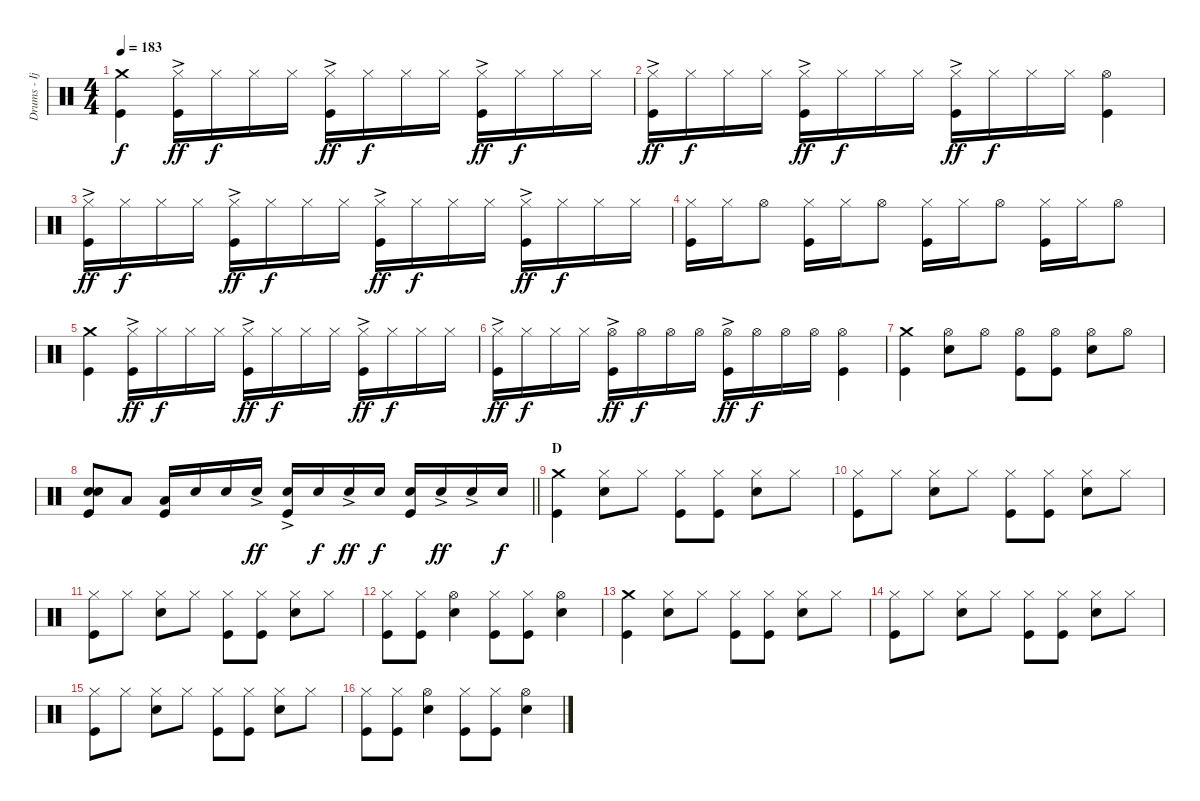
\track ("Drums - Ijichi" "Drums - Ij") {instrument percussion}
\staff {score}
\articulation defaults
\ts (4 4)
\tempo 183
\clef neutral
\ks c
("Crash medium (hit)" "Kick (hit)").4{dy f} ("Hi-Hat (closed)"{ac} "Kick (hit)").16{dy ff} "Hi-Hat (closed)".16{dy f} "Hi-Hat (closed)".16 "Hi-Hat (closed)".16 ("Hi-Hat (closed)"{ac} "Kick (hit)").16{dy ff} "Hi-Hat (closed)".16{dy f} "Hi-Hat (closed)".16 "Hi-Hat (closed)".16 ("Hi-Hat (closed)"{ac} "Kick (hit)").16{dy ff} "Hi-Hat (closed)".16{dy f} "Hi-Hat (closed)".16 "Hi-Hat (closed)".16 |
("Hi-Hat (closed)"{ac} "Kick (hit)").16{dy ff} "Hi-Hat (closed)".16{dy f} "Hi-Hat (closed)".16 "Hi-Hat (closed)".16 ("Hi-Hat (closed)"{ac} "Kick (hit)").16{dy ff} "Hi-Hat (closed)".16{dy f} "Hi-Hat (closed)".16 "Hi-Hat (closed)".16 ("Hi-Hat (closed)"{ac} "Kick (hit)").16{dy ff} "Hi-Hat (closed)".16{dy f} "Hi-Hat (closed)".16 "Hi-Hat (closed)".16 ("Hi-Hat (open)" "Kick (hit)").4 |
("Hi-Hat (closed)"{ac} "Kick (hit)").16{dy ff} "Hi-Hat (closed)".16{dy f} "Hi-Hat (closed)".16 "Hi-Hat (closed)".16 ("Hi-Hat (closed)"{ac} "Kick (hit)").16{dy ff} "Hi-Hat (closed)".16{dy f} "Hi-Hat (closed)".16 "Hi-Hat (closed)".16 ("Hi-Hat (closed)"{ac} "Kick (hit)").16{dy ff} "Hi-Hat (closed)".16{dy f} "Hi-Hat (closed)".16 "Hi-Hat (closed)".16 ("Hi-Hat (closed)"{ac} "Kick (hit)").16{dy ff} "Hi-Hat (closed)".16{dy f} "Hi-Hat (closed)".16 "Hi-Hat (closed)".16 |
("Hi-Hat (closed)" "Kick (hit)").16 "Hi-Hat (closed)".16 "Hi-Hat (open)".8 ("Hi-Hat (closed)" "Kick (hit)").16 "Hi-Hat (closed)".16 "Hi-Hat (open)".8 ("Hi-Hat (closed)" "Kick (hit)").16 "Hi-Hat (closed)".16 "Hi-Hat (open)".8 ("Hi-Hat (closed)" "Kick (hit)").16 "Hi-Hat (closed)".16 "Hi-Hat (open)".8 |
("Crash medium (hit)" "Kick (hit)").4 ("Hi-Hat (closed)"{ac} "Kick (hit)").16{dy ff} "Hi-Hat (closed)".16{dy f} "Hi-Hat (closed)".16 "Hi-Hat (closed)".16 ("Hi-Hat (closed)"{ac} "Kick (hit)").16{dy ff} "Hi-Hat (closed)".16{dy f} "Hi-Hat (closed)".16 "Hi-Hat (closed)".16 ("Hi-Hat (closed)"{ac} "Kick (hit)").16{dy ff} "Hi-Hat (closed)".16{dy f} "Hi-Hat (closed)".16 "Hi-Hat (closed)".16 |
("Hi-Hat (closed)"{ac} "Kick (hit)").16{dy ff} "Hi-Hat (closed)".16{dy f} "Hi-Hat (closed)".16 "Hi-Hat (closed)".16 ("Hi-Hat (open)"{ac} "Kick (hit)").16{dy ff} "Hi-Hat (open)".16{dy f} "Hi-Hat (open)".16 "Hi-Hat (open)".16 ("Hi-Hat (open)"{ac} "Kick (hit)").16{dy ff} "Hi-Hat (open)".16{dy f} "Hi-Hat (open)".16 "Hi-Hat (open)".16 ("Hi-Hat (open)" "Kick (hit)").4 |
("Crash medium (hit)" "Kick (hit)").4 ("Hi-Hat (open)" "Electric Snare (hit)").8 "Hi-Hat (open)".8 ("Hi-Hat (open)" "Kick (hit)").8 ("Hi-Hat (open)" "Kick (hit)").8 ("Hi-Hat (open)" "Electric Snare (hit)").8 "Hi-Hat (open)".8 |
\barLineRight lightlight
("Electric Snare (hit)" "Electric Snare (hit)" "Kick (hit)").8 "Low Tom (hit)".8 ("Low Tom (hit)" "Kick (hit)").16 "Electric Snare (hit)".16 "Electric Snare (hit)".16 "Electric Snare (hit)"{ac}.16{dy ff} ("Electric Snare (hit)"{ac} "Kick (hit)").16 "Electric Snare (hit)".16{dy f} "Electric Snare (hit)"{ac}.16{dy ff} "Electric Snare (hit)".16{dy f} ("Electric Snare (hit)" "Kick (hit)").16 "Electric Snare (hit)"{ac}.16{dy ff} "Electric Snare (hit)"{ac}.16 "Electric Snare (hit)".16{dy f} |
\section ("" "D")
("Crash medium (hit)" "Kick (hit)").4 ("Hi-Hat (closed)" "Electric Snare (hit)").8 "Hi-Hat (closed)".8 ("Hi-Hat (closed)" "Kick (hit)").8 ("Hi-Hat (closed)" "Kick (hit)").8 ("Hi-Hat (closed)" "Electric Snare (hit)").8 "Hi-Hat (closed)".8 |
("Hi-Hat (closed)" "Kick (hit)").8 "Hi-Hat (closed)".8 ("Hi-Hat (closed)" "Electric Snare (hit)").8 "Hi-Hat (closed)".8 ("Hi-Hat (closed)" "Kick (hit)").8 ("Hi-Hat (closed)" "Kick (hit)").8 ("Hi-Hat (closed)" "Electric Snare (hit)").8 "Hi-Hat (closed)".8 |
("Hi-Hat (closed)" "Kick (hit)").8 "Hi-Hat (closed)".8 ("Hi-Hat (closed)" "Electric Snare (hit)").8 "Hi-Hat (closed)".8 ("Hi-Hat (closed)" "Kick (hit)").8 ("Hi-Hat (closed)" "Kick (hit)").8 ("Hi-Hat (closed)" "Electric Snare (hit)").8 "Hi-Hat (closed)".8 |
("Hi-Hat (closed)" "Kick (hit)").8 ("Hi-Hat (closed)" "Kick (hit)").8 ("Hi-Hat (open)" "Electric Snare (hit)").4 ("Hi-Hat (closed)" "Kick (hit)").8 ("Hi-Hat (closed)" "Kick (hit)").8 ("Hi-Hat (open)" "Electric Snare (hit)").4 |
("Crash medium (hit)" "Kick (hit)").4 ("Hi-Hat (closed)" "Electric Snare (hit)").8 "Hi-Hat (closed)".8 ("Hi-Hat (closed)" "Kick (hit)").8 ("Hi-Hat (closed)" "Kick (hit)").8 ("Hi-Hat (closed)" "Electric Snare (hit)").8 "Hi-Hat (closed)".8 |
("Hi-Hat (closed)" "Kick (hit)").8 "Hi-Hat (closed)".8 ("Hi-Hat (closed)" "Electric Snare (hit)").8 "Hi-Hat (closed)".8 ("Hi-Hat (closed)" "Kick (hit)").8 ("Hi-Hat (closed)" "Kick (hit)").8 ("Hi-Hat (closed)" "Electric Snare (hit)").8 "Hi-Hat (closed)".8 |
("Hi-Hat (closed)" "Kick (hit)").8 "Hi-Hat (closed)".8 ("Hi-Hat (closed)" "Electric Snare (hit)").8 "Hi-Hat (closed)".8 ("Hi-Hat (closed)" "Kick (hit)").8 ("Hi-Hat (closed)" "Kick (hit)").8 ("Hi-Hat (closed)" "Electric Snare (hit)").8 "Hi-Hat (closed)".8 |
("Hi-Hat (closed)" "Kick (hit)").8 ("Hi-Hat (closed)" "Kick (hit)").8 ("Hi-Hat (open)" "Electric Snare (hit)").4 ("Hi-Hat (closed)" "Kick (hit)").8 ("Hi-Hat (closed)" "Kick (hit)").8 ("Hi-Hat (open)" "Electric Snare (hit)").4
